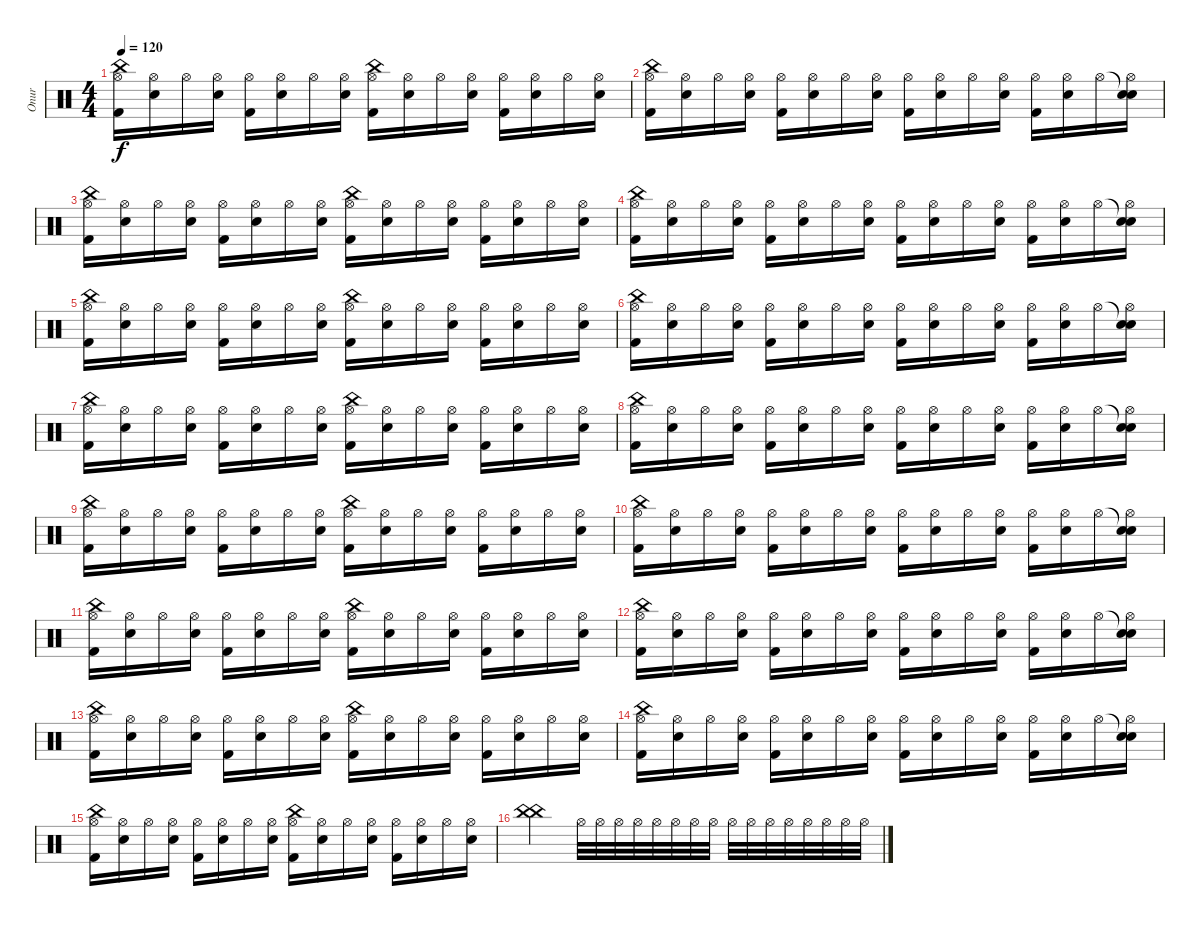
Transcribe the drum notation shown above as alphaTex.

\track ("Onur" "Onur") {instrument percussion}
\staff {score}
\articulation defaults
\ts (4 4)
\tempo 120
\clef neutral
\ks c
("China (hit)" "Hi-Hat (open)" "Kick (hit) 2").16{dy f} ("Hi-Hat (open)" "Snare (hit) 2").16 "Hi-Hat (open)".16 ("Hi-Hat (open)" "Snare (hit) 2").16 ("Hi-Hat (open)" "Kick (hit) 2").16 ("Hi-Hat (open)" "Snare (hit) 2").16 "Hi-Hat (open)".16 ("Hi-Hat (open)" "Snare (hit) 2").16 ("China (hit)" "Hi-Hat (open)" "Kick (hit) 2").16 ("Hi-Hat (open)" "Snare (hit) 2").16 "Hi-Hat (open)".16 ("Hi-Hat (open)" "Snare (hit) 2").16 ("Hi-Hat (open)" "Kick (hit) 2").16 ("Hi-Hat (open)" "Snare (hit) 2").16 "Hi-Hat (open)".16 ("Hi-Hat (open)" "Snare (hit) 2").16 |
("China (hit)" "Hi-Hat (open)" "Kick (hit) 2").16 ("Hi-Hat (open)" "Snare (hit) 2").16 "Hi-Hat (open)".16 ("Hi-Hat (open)" "Snare (hit) 2").16 ("Hi-Hat (open)" "Kick (hit) 2").16 ("Hi-Hat (open)" "Snare (hit) 2").16 "Hi-Hat (open)".16 ("Hi-Hat (open)" "Snare (hit) 2").16 ("Hi-Hat (open)" "Kick (hit) 2").16 ("Hi-Hat (open)" "Snare (hit) 2").16 "Hi-Hat (open)".16 ("Hi-Hat (open)" "Snare (hit) 2").16 ("Hi-Hat (open)" "Kick (hit) 2").16 ("Hi-Hat (open)" "Snare (hit) 2").16 "Hi-Hat (open)".16 ("Snare (hit)"{t} "Hi-Hat (open)" "Snare (hit) 2").16 |
("China (hit)" "Hi-Hat (open)" "Kick (hit) 2").16 ("Hi-Hat (open)" "Snare (hit) 2").16 "Hi-Hat (open)".16 ("Hi-Hat (open)" "Snare (hit) 2").16 ("Hi-Hat (open)" "Kick (hit) 2").16 ("Hi-Hat (open)" "Snare (hit) 2").16 "Hi-Hat (open)".16 ("Hi-Hat (open)" "Snare (hit) 2").16 ("China (hit)" "Hi-Hat (open)" "Kick (hit) 2").16 ("Hi-Hat (open)" "Snare (hit) 2").16 "Hi-Hat (open)".16 ("Hi-Hat (open)" "Snare (hit) 2").16 ("Hi-Hat (open)" "Kick (hit) 2").16 ("Hi-Hat (open)" "Snare (hit) 2").16 "Hi-Hat (open)".16 ("Hi-Hat (open)" "Snare (hit) 2").16 |
("China (hit)" "Hi-Hat (open)" "Kick (hit) 2").16 ("Hi-Hat (open)" "Snare (hit) 2").16 "Hi-Hat (open)".16 ("Hi-Hat (open)" "Snare (hit) 2").16 ("Hi-Hat (open)" "Kick (hit) 2").16 ("Hi-Hat (open)" "Snare (hit) 2").16 "Hi-Hat (open)".16 ("Hi-Hat (open)" "Snare (hit) 2").16 ("Hi-Hat (open)" "Kick (hit) 2").16 ("Hi-Hat (open)" "Snare (hit) 2").16 "Hi-Hat (open)".16 ("Hi-Hat (open)" "Snare (hit) 2").16 ("Hi-Hat (open)" "Kick (hit) 2").16 ("Hi-Hat (open)" "Snare (hit) 2").16 "Hi-Hat (open)".16 ("Snare (hit)"{t} "Hi-Hat (open)" "Snare (hit) 2").16 |
("China (hit)" "Hi-Hat (open)" "Kick (hit) 2").16 ("Hi-Hat (open)" "Snare (hit) 2").16 "Hi-Hat (open)".16 ("Hi-Hat (open)" "Snare (hit) 2").16 ("Hi-Hat (open)" "Kick (hit) 2").16 ("Hi-Hat (open)" "Snare (hit) 2").16 "Hi-Hat (open)".16 ("Hi-Hat (open)" "Snare (hit) 2").16 ("China (hit)" "Hi-Hat (open)" "Kick (hit) 2").16 ("Hi-Hat (open)" "Snare (hit) 2").16 "Hi-Hat (open)".16 ("Hi-Hat (open)" "Snare (hit) 2").16 ("Hi-Hat (open)" "Kick (hit) 2").16 ("Hi-Hat (open)" "Snare (hit) 2").16 "Hi-Hat (open)".16 ("Hi-Hat (open)" "Snare (hit) 2").16 |
("China (hit)" "Hi-Hat (open)" "Kick (hit) 2").16 ("Hi-Hat (open)" "Snare (hit) 2").16 "Hi-Hat (open)".16 ("Hi-Hat (open)" "Snare (hit) 2").16 ("Hi-Hat (open)" "Kick (hit) 2").16 ("Hi-Hat (open)" "Snare (hit) 2").16 "Hi-Hat (open)".16 ("Hi-Hat (open)" "Snare (hit) 2").16 ("Hi-Hat (open)" "Kick (hit) 2").16 ("Hi-Hat (open)" "Snare (hit) 2").16 "Hi-Hat (open)".16 ("Hi-Hat (open)" "Snare (hit) 2").16 ("Hi-Hat (open)" "Kick (hit) 2").16 ("Hi-Hat (open)" "Snare (hit) 2").16 "Hi-Hat (open)".16 ("Snare (hit)"{t} "Hi-Hat (open)" "Snare (hit) 2").16 |
("China (hit)" "Hi-Hat (open)" "Kick (hit) 2").16 ("Hi-Hat (open)" "Snare (hit) 2").16 "Hi-Hat (open)".16 ("Hi-Hat (open)" "Snare (hit) 2").16 ("Hi-Hat (open)" "Kick (hit) 2").16 ("Hi-Hat (open)" "Snare (hit) 2").16 "Hi-Hat (open)".16 ("Hi-Hat (open)" "Snare (hit) 2").16 ("China (hit)" "Hi-Hat (open)" "Kick (hit) 2").16 ("Hi-Hat (open)" "Snare (hit) 2").16 "Hi-Hat (open)".16 ("Hi-Hat (open)" "Snare (hit) 2").16 ("Hi-Hat (open)" "Kick (hit) 2").16 ("Hi-Hat (open)" "Snare (hit) 2").16 "Hi-Hat (open)".16 ("Hi-Hat (open)" "Snare (hit) 2").16 |
("China (hit)" "Hi-Hat (open)" "Kick (hit) 2").16 ("Hi-Hat (open)" "Snare (hit) 2").16 "Hi-Hat (open)".16 ("Hi-Hat (open)" "Snare (hit) 2").16 ("Hi-Hat (open)" "Kick (hit) 2").16 ("Hi-Hat (open)" "Snare (hit) 2").16 "Hi-Hat (open)".16 ("Hi-Hat (open)" "Snare (hit) 2").16 ("Hi-Hat (open)" "Kick (hit) 2").16 ("Hi-Hat (open)" "Snare (hit) 2").16 "Hi-Hat (open)".16 ("Hi-Hat (open)" "Snare (hit) 2").16 ("Hi-Hat (open)" "Kick (hit) 2").16 ("Hi-Hat (open)" "Snare (hit) 2").16 "Hi-Hat (open)".16 ("Snare (hit)"{t} "Hi-Hat (open)" "Snare (hit) 2").16 |
("China (hit)" "Hi-Hat (open)" "Kick (hit) 2").16 ("Hi-Hat (open)" "Snare (hit) 2").16 "Hi-Hat (open)".16 ("Hi-Hat (open)" "Snare (hit) 2").16 ("Hi-Hat (open)" "Kick (hit) 2").16 ("Hi-Hat (open)" "Snare (hit) 2").16 "Hi-Hat (open)".16 ("Hi-Hat (open)" "Snare (hit) 2").16 ("China (hit)" "Hi-Hat (open)" "Kick (hit) 2").16 ("Hi-Hat (open)" "Snare (hit) 2").16 "Hi-Hat (open)".16 ("Hi-Hat (open)" "Snare (hit) 2").16 ("Hi-Hat (open)" "Kick (hit) 2").16 ("Hi-Hat (open)" "Snare (hit) 2").16 "Hi-Hat (open)".16 ("Hi-Hat (open)" "Snare (hit) 2").16 |
("China (hit)" "Hi-Hat (open)" "Kick (hit) 2").16 ("Hi-Hat (open)" "Snare (hit) 2").16 "Hi-Hat (open)".16 ("Hi-Hat (open)" "Snare (hit) 2").16 ("Hi-Hat (open)" "Kick (hit) 2").16 ("Hi-Hat (open)" "Snare (hit) 2").16 "Hi-Hat (open)".16 ("Hi-Hat (open)" "Snare (hit) 2").16 ("Hi-Hat (open)" "Kick (hit) 2").16 ("Hi-Hat (open)" "Snare (hit) 2").16 "Hi-Hat (open)".16 ("Hi-Hat (open)" "Snare (hit) 2").16 ("Hi-Hat (open)" "Kick (hit) 2").16 ("Hi-Hat (open)" "Snare (hit) 2").16 "Hi-Hat (open)".16 ("Snare (hit)"{t} "Hi-Hat (open)" "Snare (hit) 2").16 |
("China (hit)" "Hi-Hat (open)" "Kick (hit) 2").16 ("Hi-Hat (open)" "Snare (hit) 2").16 "Hi-Hat (open)".16 ("Hi-Hat (open)" "Snare (hit) 2").16 ("Hi-Hat (open)" "Kick (hit) 2").16 ("Hi-Hat (open)" "Snare (hit) 2").16 "Hi-Hat (open)".16 ("Hi-Hat (open)" "Snare (hit) 2").16 ("China (hit)" "Hi-Hat (open)" "Kick (hit) 2").16 ("Hi-Hat (open)" "Snare (hit) 2").16 "Hi-Hat (open)".16 ("Hi-Hat (open)" "Snare (hit) 2").16 ("Hi-Hat (open)" "Kick (hit) 2").16 ("Hi-Hat (open)" "Snare (hit) 2").16 "Hi-Hat (open)".16 ("Hi-Hat (open)" "Snare (hit) 2").16 |
("China (hit)" "Hi-Hat (open)" "Kick (hit) 2").16 ("Hi-Hat (open)" "Snare (hit) 2").16 "Hi-Hat (open)".16 ("Hi-Hat (open)" "Snare (hit) 2").16 ("Hi-Hat (open)" "Kick (hit) 2").16 ("Hi-Hat (open)" "Snare (hit) 2").16 "Hi-Hat (open)".16 ("Hi-Hat (open)" "Snare (hit) 2").16 ("Hi-Hat (open)" "Kick (hit) 2").16 ("Hi-Hat (open)" "Snare (hit) 2").16 "Hi-Hat (open)".16 ("Hi-Hat (open)" "Snare (hit) 2").16 ("Hi-Hat (open)" "Kick (hit) 2").16 ("Hi-Hat (open)" "Snare (hit) 2").16 "Hi-Hat (open)".16 ("Snare (hit)"{t} "Hi-Hat (open)" "Snare (hit) 2").16 |
("China (hit)" "Hi-Hat (open)" "Kick (hit) 2").16 ("Hi-Hat (open)" "Snare (hit) 2").16 "Hi-Hat (open)".16 ("Hi-Hat (open)" "Snare (hit) 2").16 ("Hi-Hat (open)" "Kick (hit) 2").16 ("Hi-Hat (open)" "Snare (hit) 2").16 "Hi-Hat (open)".16 ("Hi-Hat (open)" "Snare (hit) 2").16 ("China (hit)" "Hi-Hat (open)" "Kick (hit) 2").16 ("Hi-Hat (open)" "Snare (hit) 2").16 "Hi-Hat (open)".16 ("Hi-Hat (open)" "Snare (hit) 2").16 ("Hi-Hat (open)" "Kick (hit) 2").16 ("Hi-Hat (open)" "Snare (hit) 2").16 "Hi-Hat (open)".16 ("Hi-Hat (open)" "Snare (hit) 2").16 |
("China (hit)" "Hi-Hat (open)" "Kick (hit) 2").16 ("Hi-Hat (open)" "Snare (hit) 2").16 "Hi-Hat (open)".16 ("Hi-Hat (open)" "Snare (hit) 2").16 ("Hi-Hat (open)" "Kick (hit) 2").16 ("Hi-Hat (open)" "Snare (hit) 2").16 "Hi-Hat (open)".16 ("Hi-Hat (open)" "Snare (hit) 2").16 ("Hi-Hat (open)" "Kick (hit) 2").16 ("Hi-Hat (open)" "Snare (hit) 2").16 "Hi-Hat (open)".16 ("Hi-Hat (open)" "Snare (hit) 2").16 ("Hi-Hat (open)" "Kick (hit) 2").16 ("Hi-Hat (open)" "Snare (hit) 2").16 "Hi-Hat (open)".16 ("Snare (hit)"{t} "Hi-Hat (open)" "Snare (hit) 2").16 |
("China (hit)" "Hi-Hat (open)" "Kick (hit) 2").16 ("Hi-Hat (open)" "Snare (hit) 2").16 "Hi-Hat (open)".16 ("Hi-Hat (open)" "Snare (hit) 2").16 ("Hi-Hat (open)" "Kick (hit) 2").16 ("Hi-Hat (open)" "Snare (hit) 2").16 "Hi-Hat (open)".16 ("Hi-Hat (open)" "Snare (hit) 2").16 ("China (hit)" "Hi-Hat (open)" "Kick (hit) 2").16 ("Hi-Hat (open)" "Snare (hit) 2").16 "Hi-Hat (open)".16 ("Hi-Hat (open)" "Snare (hit) 2").16 ("Hi-Hat (open)" "Kick (hit) 2").16 ("Hi-Hat (open)" "Snare (hit) 2").16 "Hi-Hat (open)".16 ("Hi-Hat (open)" "Snare (hit) 2").16 |
("China (hit)" "China (hit)").2 "Hi-Hat (open)".32 "Hi-Hat (open)".32 "Hi-Hat (open)".32 "Hi-Hat (open)".32 "Hi-Hat (open)".32 "Hi-Hat (open)".32 "Hi-Hat (open)".32 "Hi-Hat (open)".32 "Hi-Hat (open)".32 "Hi-Hat (open)".32 "Hi-Hat (open)".32 "Hi-Hat (open)".32 "Hi-Hat (open)".32 "Hi-Hat (open)".32 "Hi-Hat (open)".32 "Hi-Hat (open)".32
